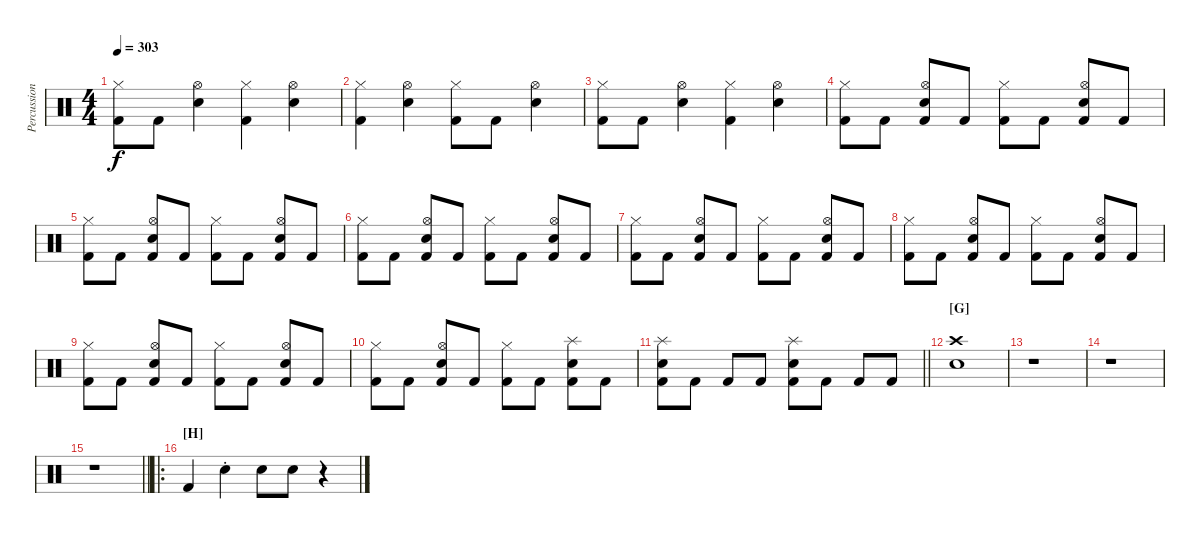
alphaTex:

\track ("Percussions" "Percussion") {instrument percussion}
\staff {score}
\articulation defaults
\ts (4 4)
\tempo 303
\clef neutral
\ks c
("Hi-Hat (closed)" "Kick (hit) 2").8{dy f} "Kick (hit) 2".8 ("Hi-Hat (open)" "Electric Snare (hit)").4 ("Hi-Hat (closed)" "Kick (hit) 2").4 ("Hi-Hat (open)" "Electric Snare (hit)").4 |
("Hi-Hat (closed)" "Kick (hit) 2").4 ("Hi-Hat (open)" "Electric Snare (hit)").4 ("Hi-Hat (closed)" "Kick (hit) 2").8 "Kick (hit) 2".8 ("Hi-Hat (open)" "Electric Snare (hit)").4 |
("Hi-Hat (closed)" "Kick (hit) 2").8 "Kick (hit) 2".8 ("Hi-Hat (open)" "Electric Snare (hit)").4 ("Hi-Hat (closed)" "Kick (hit) 2").4 ("Hi-Hat (open)" "Electric Snare (hit)").4 |
("Hi-Hat (closed)" "Kick (hit) 2").8 "Kick (hit) 2".8 ("Hi-Hat (open)" "Electric Snare (hit)" "Kick (hit) 2").8 "Kick (hit) 2".8 ("Hi-Hat (closed)" "Kick (hit) 2").8 "Kick (hit) 2".8 ("Hi-Hat (open)" "Electric Snare (hit)" "Kick (hit) 2").8 "Kick (hit) 2".8 |
("Hi-Hat (closed)" "Kick (hit) 2").8 "Kick (hit) 2".8 ("Hi-Hat (open)" "Electric Snare (hit)" "Kick (hit) 2").8 "Kick (hit) 2".8 ("Hi-Hat (closed)" "Kick (hit) 2").8 "Kick (hit) 2".8 ("Hi-Hat (open)" "Electric Snare (hit)" "Kick (hit) 2").8 "Kick (hit) 2".8 |
("Hi-Hat (closed)" "Kick (hit) 2").8 "Kick (hit) 2".8 ("Hi-Hat (open)" "Electric Snare (hit)" "Kick (hit) 2").8 "Kick (hit) 2".8 ("Hi-Hat (closed)" "Kick (hit) 2").8 "Kick (hit) 2".8 ("Hi-Hat (open)" "Electric Snare (hit)" "Kick (hit) 2").8 "Kick (hit) 2".8 |
("Hi-Hat (closed)" "Kick (hit) 2").8 "Kick (hit) 2".8 ("Hi-Hat (open)" "Electric Snare (hit)" "Kick (hit) 2").8 "Kick (hit) 2".8 ("Hi-Hat (closed)" "Kick (hit) 2").8 "Kick (hit) 2".8 ("Hi-Hat (open)" "Electric Snare (hit)" "Kick (hit) 2").8 "Kick (hit) 2".8 |
("Hi-Hat (closed)" "Kick (hit) 2").8 "Kick (hit) 2".8 ("Hi-Hat (open)" "Electric Snare (hit)" "Kick (hit) 2").8 "Kick (hit) 2".8 ("Hi-Hat (closed)" "Kick (hit) 2").8 "Kick (hit) 2".8 ("Hi-Hat (open)" "Electric Snare (hit)" "Kick (hit) 2").8 "Kick (hit) 2".8 |
("Hi-Hat (closed)" "Kick (hit) 2").8 "Kick (hit) 2".8 ("Hi-Hat (open)" "Electric Snare (hit)" "Kick (hit) 2").8 "Kick (hit) 2".8 ("Hi-Hat (closed)" "Kick (hit) 2").8 "Kick (hit) 2".8 ("Hi-Hat (open)" "Electric Snare (hit)" "Kick (hit) 2").8 "Kick (hit) 2".8 |
("Hi-Hat (closed)" "Kick (hit) 2").8 "Kick (hit) 2".8 ("Hi-Hat (open)" "Electric Snare (hit)" "Kick (hit) 2").8 "Kick (hit) 2".8 ("Hi-Hat (closed)" "Kick (hit) 2").8 "Kick (hit) 2".8 ("Splash (hit)" "Electric Snare (hit)" "Kick (hit) 2").8 "Kick (hit) 2".8 |
\barLineRight lightlight
("Splash (hit)" "Electric Snare (hit)" "Kick (hit) 2").8 "Kick (hit) 2".8 "Kick (hit) 2".8 "Kick (hit) 2".8 ("Splash (hit)" "Electric Snare (hit)" "Kick (hit) 2").8 "Kick (hit) 2".8 "Kick (hit) 2".8 "Kick (hit) 2".8 |
\section ("" "[G]")
("Crash high (hit)" "Electric Snare (hit)").1 |
r.1 |
r.1 |
\barLineRight lightlight
r.1 |
\ro
\section ("" "[H]")
"Kick (hit) 2".4 "Electric Snare (hit)"{st}.4 "Electric Snare (hit)".8 "Electric Snare (hit)".8 r.4
